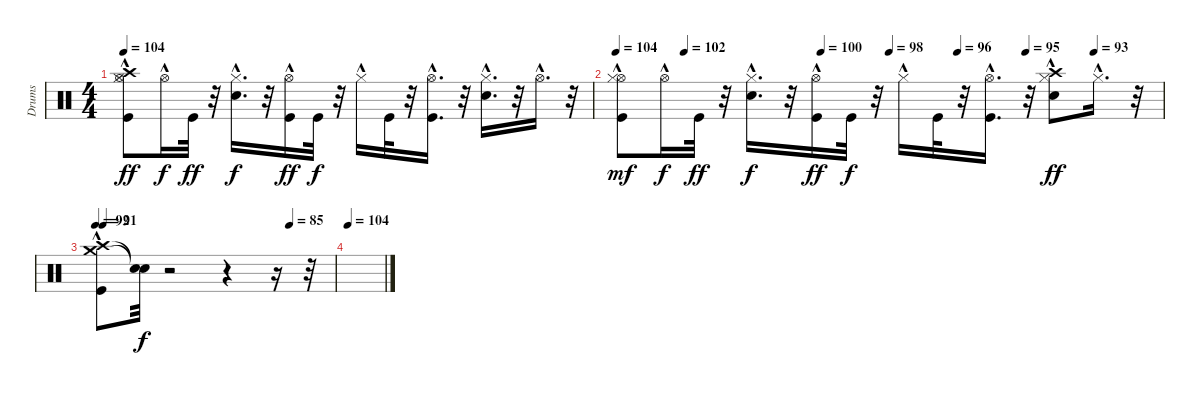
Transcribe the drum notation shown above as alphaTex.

\track ("Drums" "Drums") {instrument percussion}
\staff {score}
\articulation defaults
\ts (4 4)
\tempo 104
\clef neutral
\ks c
("Hi-Hat (open)" "Hi-Hat (closed)"{hac} "Kick (hit)" "Crash high (hit)"{hac}).8{dy ff} "Hi-Hat (open)"{hac}.16{dy f} "Kick (hit)".32{dy ff} r.32 ("Hi-Hat (closed)"{hac} "Electric Snare (hit)"{hac}).16{d dy f} r.32 ("Hi-Hat (open)"{hac} "Kick (hit)").16{dy ff} "Kick (hit)".32{dy f} r.32 "Hi-Hat (closed)"{hac}.16 "Kick (hit)".32 r.32 ("Hi-Hat (open)"{hac} "Kick (hit)").16{d} r.32 ("Hi-Hat (closed)"{hac} "Electric Snare (hit)"{hac}).16{d} r.32 "Hi-Hat (open)"{hac}.16{d} r.32 |
\tempo 104
\tempo (102 0.125)
\tempo (100 0.375)
\tempo (98 0.5)
\tempo (96 0.625)
\tempo (95 0.75)
\tempo (93 0.875)
("Hi-Hat (open)" "Hi-Hat (closed)"{hac} "Kick (hit)").8{dy mf} "Hi-Hat (open)"{hac}.16{dy f} "Kick (hit)".32{dy ff} r.32 ("Hi-Hat (closed)"{hac} "Electric Snare (hit)"{hac}).16{d dy f} r.32 ("Hi-Hat (open)"{hac} "Kick (hit)").16{dy ff} "Kick (hit)".32{dy f} r.32 "Hi-Hat (closed)"{hac}.16 "Kick (hit)".32 r.32 ("Hi-Hat (open)"{hac} "Kick (hit)").16{d} r.32 ("Hi-Hat (closed)"{hac} "Electric Snare (hit)"{hac} "Crash high (hit)").8{dy ff} "Hi-Hat (closed)"{hac}.16{d} r.32 |
\tempo 92
\tempo (91 0.03125)
\tempo (85 0.8125)
("Crash medium (hit)" "Crash high (hit)" "Kick (hit)"{hac}).8 ("Snare (hit)"{t} "Snare (hit)"{t}).32{dy f} r.2 r.4 r.16 r.32 |
\tempo 104
